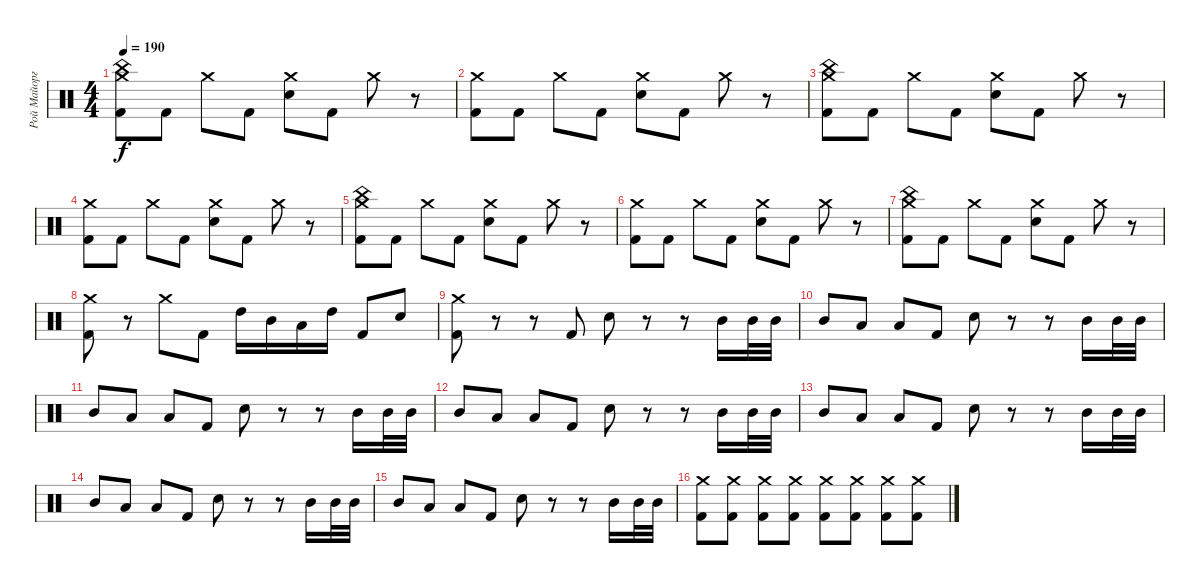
\track ("Рой Майорга" "Рой Майорг") {instrument percussion}
\staff {score}
\articulation defaults
\ts (4 4)
\tempo 190
\clef neutral
\ks c
("Crash medium (hit)" "China (hit)" "Kick (hit) 2").8{dy f} "Kick (hit) 2".8 "Crash medium (hit)".8 "Kick (hit) 2".8 ("Crash medium (hit)" "Electric Snare (hit)").8 "Kick (hit) 2".8 "Crash medium (hit)".8 r.8 |
("Crash medium (hit)" "Kick (hit) 2").8 "Kick (hit) 2".8 "Crash medium (hit)".8 "Kick (hit) 2".8 ("Crash medium (hit)" "Electric Snare (hit)").8 "Kick (hit) 2".8 "Crash medium (hit)".8 r.8 |
("Crash medium (hit)" "China (hit)" "Kick (hit) 2").8 "Kick (hit) 2".8 "Crash medium (hit)".8 "Kick (hit) 2".8 ("Crash medium (hit)" "Electric Snare (hit)").8 "Kick (hit) 2".8 "Crash medium (hit)".8 r.8 |
("Crash medium (hit)" "Kick (hit) 2").8 "Kick (hit) 2".8 "Crash medium (hit)".8 "Kick (hit) 2".8 ("Crash medium (hit)" "Electric Snare (hit)").8 "Kick (hit) 2".8 "Crash medium (hit)".8 r.8 |
("Crash medium (hit)" "China (hit)" "Kick (hit) 2").8 "Kick (hit) 2".8 "Crash medium (hit)".8 "Kick (hit) 2".8 ("Crash medium (hit)" "Electric Snare (hit)").8 "Kick (hit) 2".8 "Crash medium (hit)".8 r.8 |
("Crash medium (hit)" "Kick (hit) 2").8 "Kick (hit) 2".8 "Crash medium (hit)".8 "Kick (hit) 2".8 ("Crash medium (hit)" "Electric Snare (hit)").8 "Kick (hit) 2".8 "Crash medium (hit)".8 r.8 |
("Crash medium (hit)" "China (hit)" "Kick (hit) 2").8 "Kick (hit) 2".8 "Crash medium (hit)".8 "Kick (hit) 2".8 ("Crash medium (hit)" "Electric Snare (hit)").8 "Kick (hit) 2".8 "Crash medium (hit)".8 r.8 |
("Crash medium (hit)" "Kick (hit) 2").8 r.8 "Crash medium (hit)".8 "Kick (hit) 2".8 "High Tom (hit)".16 "Mid Tom (hit)".16 "Low Tom (hit)".16 "High Tom (hit)".16 "Kick (hit) 2".8 "Electric Snare (hit)".8 |
("Crash medium (hit)" "Kick (hit) 2").8 r.8 r.8 "Kick (hit) 2".8 "Electric Snare (hit)".8 r.8 r.8 "Mid Tom (hit)".16 "Mid Tom (hit)".32 "Mid Tom (hit)".32 |
"Mid Tom (hit)".8 "Low Tom (hit)".8 "Low Floor Tom (hit)".8 "Kick (hit) 2".8 "Electric Snare (hit)".8 r.8 r.8 "Mid Tom (hit)".16 "Mid Tom (hit)".32 "Mid Tom (hit)".32 |
"Mid Tom (hit)".8 "Low Tom (hit)".8 "Low Floor Tom (hit)".8 "Kick (hit) 2".8 "Electric Snare (hit)".8 r.8 r.8 "Mid Tom (hit)".16 "Mid Tom (hit)".32 "Mid Tom (hit)".32 |
"Mid Tom (hit)".8 "Low Tom (hit)".8 "Low Floor Tom (hit)".8 "Kick (hit) 2".8 "Electric Snare (hit)".8 r.8 r.8 "Mid Tom (hit)".16 "Mid Tom (hit)".32 "Mid Tom (hit)".32 |
"Mid Tom (hit)".8 "Low Tom (hit)".8 "Low Floor Tom (hit)".8 "Kick (hit) 2".8 "Electric Snare (hit)".8 r.8 r.8 "Mid Tom (hit)".16 "Mid Tom (hit)".32 "Mid Tom (hit)".32 |
"Mid Tom (hit)".8 "Low Tom (hit)".8 "Low Floor Tom (hit)".8 "Kick (hit) 2".8 "Electric Snare (hit)".8 r.8 r.8 "Mid Tom (hit)".16 "Mid Tom (hit)".32 "Mid Tom (hit)".32 |
"Mid Tom (hit)".8 "Low Tom (hit)".8 "Low Floor Tom (hit)".8 "Kick (hit) 2".8 "Electric Snare (hit)".8 r.8 r.8 "Mid Tom (hit)".16 "Mid Tom (hit)".32 "Mid Tom (hit)".32 |
("Crash medium (hit)" "Kick (hit) 2").8 ("Crash medium (hit)" "Kick (hit) 2").8 ("Crash medium (hit)" "Kick (hit) 2").8 ("Crash medium (hit)" "Kick (hit) 2").8 ("Crash medium (hit)" "Kick (hit) 2").8 ("Crash medium (hit)" "Kick (hit) 2").8 ("Crash medium (hit)" "Kick (hit) 2").8 ("Crash medium (hit)" "Kick (hit) 2").8
